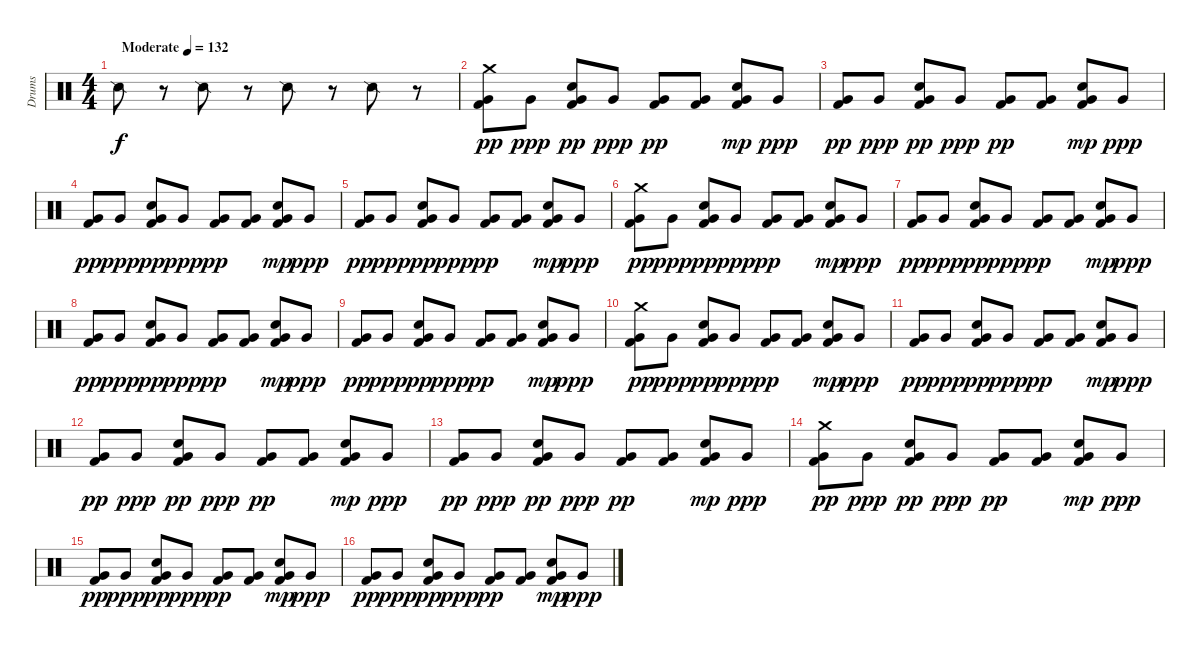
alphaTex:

\track ("Drums" "Drums") {instrument percussion}
\staff {score}
\articulation defaults
\ts (4 4)
\tempo (132 "Moderate")
\clef neutral
\ks c "Snare (side stick) 2".8{dy f}
r.8 "Snare (side stick) 2".8 r.8 "Snare (side stick) 2".8 r.8 "Snare (side stick) 2".8 r.8 |
("Crash medium (hit)" "Kick (hit) 2" "Very Low Tom (hit)").8{dy pp} "Very Low Tom (hit)".8{dy ppp} ("Electric Snare (hit)" "Very Low Tom (hit)" "Kick (hit) 2").8{dy pp} "Very Low Tom (hit)".8{dy ppp} ("Very Low Tom (hit)" "Kick (hit) 2").8{dy pp} ("Kick (hit) 2" "Very Low Tom (hit)").8 ("Electric Snare (hit)" "Very Low Tom (hit)" "Kick (hit) 2").8{dy mp} "Very Low Tom (hit)".8{dy ppp} |
("Very Low Tom (hit)" "Kick (hit) 2").8{dy pp} "Very Low Tom (hit)".8{dy ppp} ("Electric Snare (hit)" "Very Low Tom (hit)" "Kick (hit) 2").8{dy pp} "Very Low Tom (hit)".8{dy ppp} ("Very Low Tom (hit)" "Kick (hit) 2").8{dy pp} ("Kick (hit) 2" "Very Low Tom (hit)").8 ("Electric Snare (hit)" "Very Low Tom (hit)" "Kick (hit) 2").8{dy mp} "Very Low Tom (hit)".8{dy ppp} |
("Very Low Tom (hit)" "Kick (hit) 2").8{dy pp} "Very Low Tom (hit)".8{dy ppp} ("Electric Snare (hit)" "Very Low Tom (hit)" "Kick (hit) 2").8{dy pp} "Very Low Tom (hit)".8{dy ppp} ("Very Low Tom (hit)" "Kick (hit) 2").8{dy pp} ("Kick (hit) 2" "Very Low Tom (hit)").8 ("Electric Snare (hit)" "Very Low Tom (hit)" "Kick (hit) 2").8{dy mp} "Very Low Tom (hit)".8{dy ppp} |
("Very Low Tom (hit)" "Kick (hit) 2").8{dy pp} "Very Low Tom (hit)".8{dy ppp} ("Electric Snare (hit)" "Very Low Tom (hit)" "Kick (hit) 2").8{dy pp} "Very Low Tom (hit)".8{dy ppp} ("Very Low Tom (hit)" "Kick (hit) 2").8{dy pp} ("Kick (hit) 2" "Very Low Tom (hit)").8 ("Electric Snare (hit)" "Very Low Tom (hit)" "Kick (hit) 2").8{dy mp} "Very Low Tom (hit)".8{dy ppp} |
("Crash medium (hit)" "Kick (hit) 2" "Very Low Tom (hit)").8{dy pp} "Very Low Tom (hit)".8{dy ppp} ("Electric Snare (hit)" "Very Low Tom (hit)" "Kick (hit) 2").8{dy pp} "Very Low Tom (hit)".8{dy ppp} ("Very Low Tom (hit)" "Kick (hit) 2").8{dy pp} ("Kick (hit) 2" "Very Low Tom (hit)").8 ("Electric Snare (hit)" "Very Low Tom (hit)" "Kick (hit) 2").8{dy mp} "Very Low Tom (hit)".8{dy ppp} |
("Very Low Tom (hit)" "Kick (hit) 2").8{dy pp} "Very Low Tom (hit)".8{dy ppp} ("Electric Snare (hit)" "Very Low Tom (hit)" "Kick (hit) 2").8{dy pp} "Very Low Tom (hit)".8{dy ppp} ("Very Low Tom (hit)" "Kick (hit) 2").8{dy pp} ("Kick (hit) 2" "Very Low Tom (hit)").8 ("Electric Snare (hit)" "Very Low Tom (hit)" "Kick (hit) 2").8{dy mp} "Very Low Tom (hit)".8{dy ppp} |
("Very Low Tom (hit)" "Kick (hit) 2").8{dy pp} "Very Low Tom (hit)".8{dy ppp} ("Electric Snare (hit)" "Very Low Tom (hit)" "Kick (hit) 2").8{dy pp} "Very Low Tom (hit)".8{dy ppp} ("Very Low Tom (hit)" "Kick (hit) 2").8{dy pp} ("Kick (hit) 2" "Very Low Tom (hit)").8 ("Electric Snare (hit)" "Very Low Tom (hit)" "Kick (hit) 2").8{dy mp} "Very Low Tom (hit)".8{dy ppp} |
("Very Low Tom (hit)" "Kick (hit) 2").8{dy pp} "Very Low Tom (hit)".8{dy ppp} ("Electric Snare (hit)" "Very Low Tom (hit)" "Kick (hit) 2").8{dy pp} "Very Low Tom (hit)".8{dy ppp} ("Very Low Tom (hit)" "Kick (hit) 2").8{dy pp} ("Kick (hit) 2" "Very Low Tom (hit)").8 ("Electric Snare (hit)" "Very Low Tom (hit)" "Kick (hit) 2").8{dy mp} "Very Low Tom (hit)".8{dy ppp} |
("Crash medium (hit)" "Kick (hit) 2" "Very Low Tom (hit)").8{dy pp} "Very Low Tom (hit)".8{dy ppp} ("Electric Snare (hit)" "Very Low Tom (hit)" "Kick (hit) 2").8{dy pp} "Very Low Tom (hit)".8{dy ppp} ("Very Low Tom (hit)" "Kick (hit) 2").8{dy pp} ("Kick (hit) 2" "Very Low Tom (hit)").8 ("Electric Snare (hit)" "Very Low Tom (hit)" "Kick (hit) 2").8{dy mp} "Very Low Tom (hit)".8{dy ppp} |
("Very Low Tom (hit)" "Kick (hit) 2").8{dy pp} "Very Low Tom (hit)".8{dy ppp} ("Electric Snare (hit)" "Very Low Tom (hit)" "Kick (hit) 2").8{dy pp} "Very Low Tom (hit)".8{dy ppp} ("Very Low Tom (hit)" "Kick (hit) 2").8{dy pp} ("Kick (hit) 2" "Very Low Tom (hit)").8 ("Electric Snare (hit)" "Very Low Tom (hit)" "Kick (hit) 2").8{dy mp} "Very Low Tom (hit)".8{dy ppp} |
("Very Low Tom (hit)" "Kick (hit) 2").8{dy pp} "Very Low Tom (hit)".8{dy ppp} ("Electric Snare (hit)" "Very Low Tom (hit)" "Kick (hit) 2").8{dy pp} "Very Low Tom (hit)".8{dy ppp} ("Very Low Tom (hit)" "Kick (hit) 2").8{dy pp} ("Kick (hit) 2" "Very Low Tom (hit)").8 ("Electric Snare (hit)" "Very Low Tom (hit)" "Kick (hit) 2").8{dy mp} "Very Low Tom (hit)".8{dy ppp} |
("Very Low Tom (hit)" "Kick (hit) 2").8{dy pp} "Very Low Tom (hit)".8{dy ppp} ("Electric Snare (hit)" "Very Low Tom (hit)" "Kick (hit) 2").8{dy pp} "Very Low Tom (hit)".8{dy ppp} ("Very Low Tom (hit)" "Kick (hit) 2").8{dy pp} ("Kick (hit) 2" "Very Low Tom (hit)").8 ("Electric Snare (hit)" "Very Low Tom (hit)" "Kick (hit) 2").8{dy mp} "Very Low Tom (hit)".8{dy ppp} |
("Crash medium (hit)" "Kick (hit) 2" "Very Low Tom (hit)").8{dy pp} "Very Low Tom (hit)".8{dy ppp} ("Electric Snare (hit)" "Very Low Tom (hit)" "Kick (hit) 2").8{dy pp} "Very Low Tom (hit)".8{dy ppp} ("Very Low Tom (hit)" "Kick (hit) 2").8{dy pp} ("Kick (hit) 2" "Very Low Tom (hit)").8 ("Electric Snare (hit)" "Very Low Tom (hit)" "Kick (hit) 2").8{dy mp} "Very Low Tom (hit)".8{dy ppp} |
("Very Low Tom (hit)" "Kick (hit) 2").8{dy pp} "Very Low Tom (hit)".8{dy ppp} ("Electric Snare (hit)" "Very Low Tom (hit)" "Kick (hit) 2").8{dy pp} "Very Low Tom (hit)".8{dy ppp} ("Very Low Tom (hit)" "Kick (hit) 2").8{dy pp} ("Kick (hit) 2" "Very Low Tom (hit)").8 ("Electric Snare (hit)" "Very Low Tom (hit)" "Kick (hit) 2").8{dy mp} "Very Low Tom (hit)".8{dy ppp} |
("Very Low Tom (hit)" "Kick (hit) 2").8{dy pp} "Very Low Tom (hit)".8{dy ppp} ("Electric Snare (hit)" "Very Low Tom (hit)" "Kick (hit) 2").8{dy pp} "Very Low Tom (hit)".8{dy ppp} ("Very Low Tom (hit)" "Kick (hit) 2").8{dy pp} ("Kick (hit) 2" "Very Low Tom (hit)").8 ("Electric Snare (hit)" "Very Low Tom (hit)" "Kick (hit) 2").8{dy mp} "Very Low Tom (hit)".8{dy ppp}
